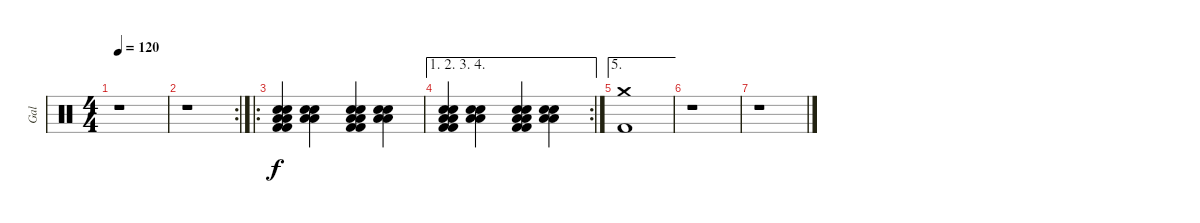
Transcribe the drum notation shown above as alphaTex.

\track ("Gal" "Gal") {instrument percussion}
\staff {score}
\articulation defaults
\ts (4 4)
\tempo 120
\clef neutral
\ks c
r.1{dy f} |
\rc 2
r.1 |
\ro
("Low Floor Tom (hit)" "Low Floor Tom (hit)" "Snare (hit) 2" "Snare (hit) 2" "Kick (hit) 2" "Kick (hit) 2").4 ("Low Floor Tom (hit)" "Low Floor Tom (hit)" "Snare (hit) 2" "Snare (hit) 2").4 ("Low Floor Tom (hit)" "Low Floor Tom (hit)" "Snare (hit) 2" "Snare (hit) 2" "Kick (hit) 2" "Kick (hit) 2").4 ("Low Floor Tom (hit)" "Low Floor Tom (hit)" "Snare (hit) 2" "Snare (hit) 2").4 |
\ae (1 2 3 4)
\rc 2
("Low Floor Tom (hit)" "Low Floor Tom (hit)" "Snare (hit) 2" "Snare (hit) 2" "Kick (hit) 2" "Kick (hit) 2").4 ("Low Floor Tom (hit)" "Low Floor Tom (hit)" "Snare (hit) 2" "Snare (hit) 2").4 ("Low Floor Tom (hit)" "Low Floor Tom (hit)" "Snare (hit) 2" "Snare (hit) 2" "Kick (hit) 2" "Kick (hit) 2").4 ("Low Floor Tom (hit)" "Low Floor Tom (hit)" "Snare (hit) 2" "Snare (hit) 2").4 |
\ae 5
("Crash medium (hit)" "Kick (hit) 2").1 |
r.1 |
r.1
